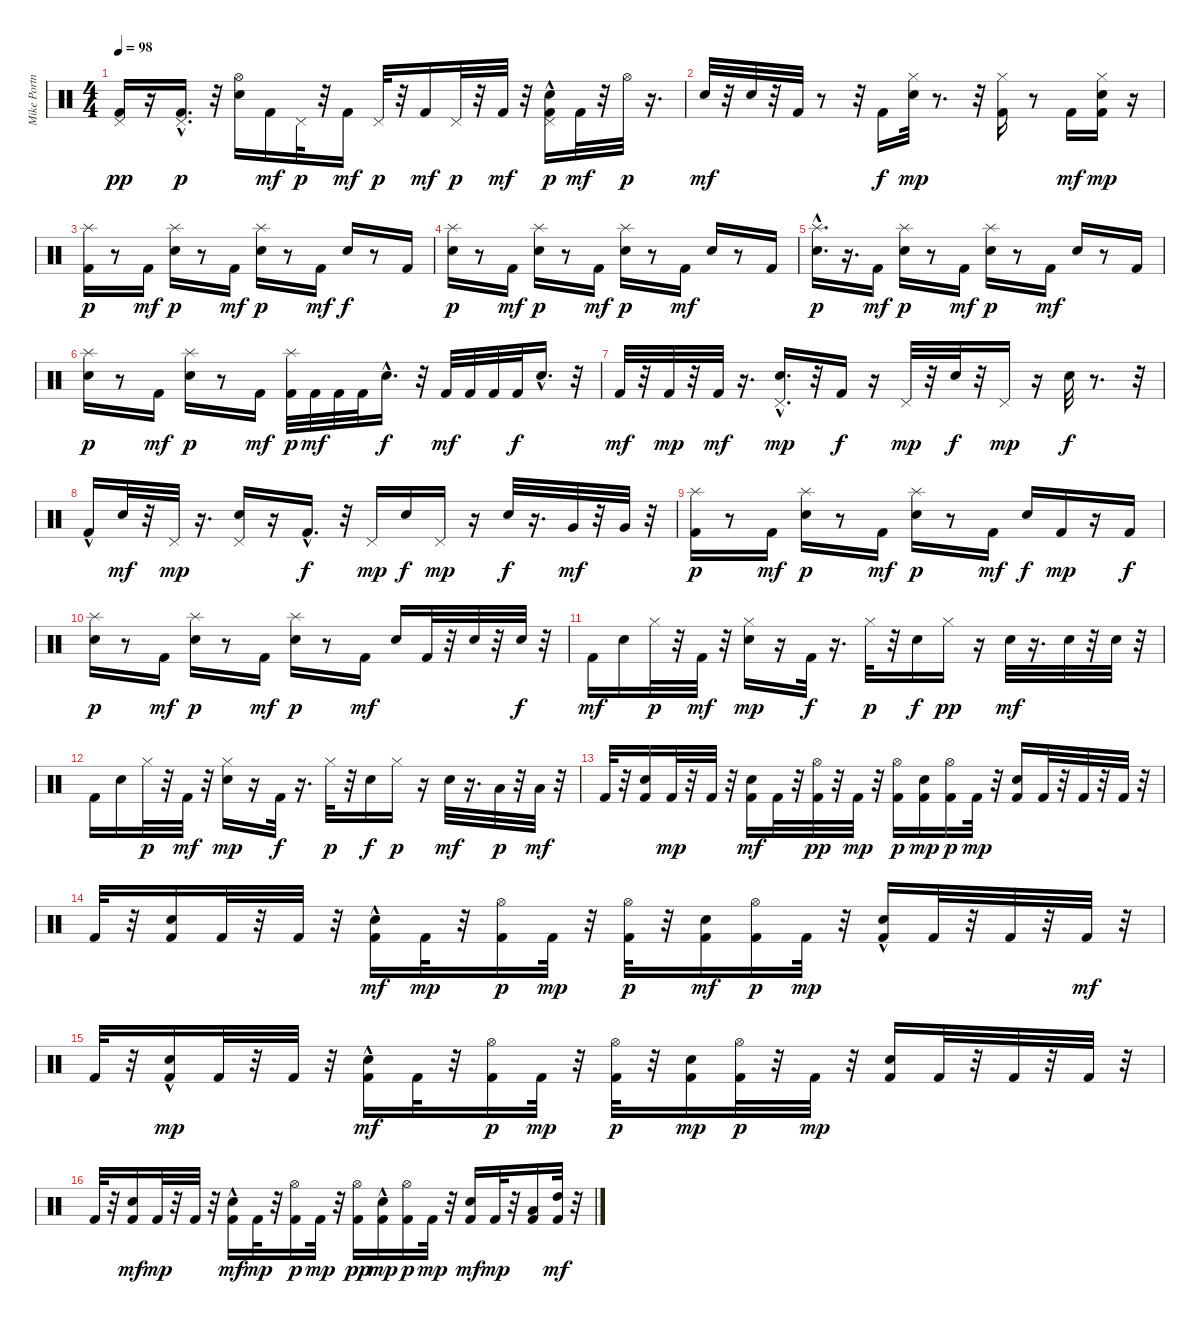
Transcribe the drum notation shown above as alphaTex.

\track ("Mike Portnoy" "Mike Portn") {instrument percussion}
\staff {score}
\articulation defaults
\ts (4 4)
\tempo 98
\clef neutral
\ks c
("Kick (hit) 2" "Pedal Hi-Hat (hit)").16{dy pp} r.16 ("Kick (hit) 2"{hac} "Pedal Hi-Hat (hit)").16{d dy p} r.32 ("Electric Snare (hit)" "Hi-Hat (open)").16 "Kick (hit) 2".16{dy mf} "Pedal Hi-Hat (hit)".32{dy p} r.32 "Kick (hit) 2".16{dy mf} "Pedal Hi-Hat (hit)".32{dy p} r.32 "Kick (hit) 2".16{dy mf} "Pedal Hi-Hat (hit)".32{dy p} r.32 "Kick (hit) 2".32{dy mf} r.32 ("Kick (hit) 2" "Electric Snare (hit)"{hac} "Pedal Hi-Hat (hit)").16{dy p} "Kick (hit) 2".32{dy mf} r.32 "Hi-Hat (open)".32{dy p} r.16{d} |
"Electric Snare (hit)".32{dy mf} r.32 "Electric Snare (hit)".32 r.32 "Kick (hit) 2".32 r.8 r.32 "Kick (hit) 2".16{dy f} ("Electric Snare (hit)" "Hi-Hat (closed)").32{dy mp} r.8{d} r.32 ("Kick (hit) 2" "Hi-Hat (closed)").16 r.8 "Kick (hit) 2".16{dy mf} ("Kick (hit) 2" "Electric Snare (hit)" "Hi-Hat (closed)").16{dy mp} r.16 |
("Kick (hit) 2" "Splash (hit)").16{dy p} r.8 "Kick (hit) 2".16{dy mf} ("Electric Snare (hit)" "Splash (hit)").16{dy p} r.8 "Kick (hit) 2".16{dy mf} ("Electric Snare (hit)" "Splash (hit)").16{dy p} r.8 "Kick (hit) 2".16{dy mf} "Electric Snare (hit)".16{dy f} r.8 "Kick (hit) 2".16 |
("Electric Snare (hit)" "Splash (hit)").16{dy p} r.8 "Kick (hit) 2".16{dy mf} ("Electric Snare (hit)" "Splash (hit)").16{dy p} r.8 "Kick (hit) 2".16{dy mf} ("Electric Snare (hit)" "Splash (hit)").16{dy p} r.8 "Kick (hit) 2".16{dy mf} "Electric Snare (hit)".16 r.8 "Kick (hit) 2".16 |
("Electric Snare (hit)"{hac} "Splash (hit)").16{d dy p} r.16{d} "Kick (hit) 2".16{dy mf} ("Electric Snare (hit)" "Splash (hit)").16{dy p} r.8 "Kick (hit) 2".16{dy mf} ("Electric Snare (hit)" "Splash (hit)").16{dy p} r.8 "Kick (hit) 2".16{dy mf} "Electric Snare (hit)".16 r.8 "Kick (hit) 2".16 |
("Electric Snare (hit)" "Splash (hit)").16{dy p} r.8 "Kick (hit) 2".16{dy mf} ("Electric Snare (hit)" "Splash (hit)").16{dy p} r.8 "Kick (hit) 2".16{dy mf} ("Kick (hit) 2" "Splash (hit)").32{dy p} "Kick (hit) 2".32{dy mf} "Kick (hit) 2".32 "Kick (hit) 2".32 "Electric Snare (hit)"{hac}.16{d dy f} r.32 "Kick (hit) 2".32{dy mf} "Kick (hit) 2".32 "Kick (hit) 2".32 "Kick (hit) 2".32{dy f} "Electric Snare (hit)"{hac}.16{d} r.32 |
"Kick (hit) 2".32{dy mf} r.32 "Kick (hit) 2".32{dy mp} r.32 "Kick (hit) 2".32{dy mf} r.16{d} ("Electric Snare (hit)"{hac} "Pedal Hi-Hat (hit)").16{d dy mp} r.32 "Kick (hit) 2".16{dy f} r.16 "Pedal Hi-Hat (hit)".32{dy mp} r.32 "Electric Snare (hit)".32{dy f} r.32 "Pedal Hi-Hat (hit)".16{dy mp} r.16 "Electric Snare (hit)".32{dy f} r.8{d} r.32 |
"Kick (hit) 2"{hac}.16 "Electric Snare (hit)".32{dy mf} r.32 "Pedal Hi-Hat (hit)".32{dy mp} r.16{d} ("Electric Snare (hit)" "Pedal Hi-Hat (hit)").16 r.16 "Kick (hit) 2"{hac}.16{d dy f} r.32 "Pedal Hi-Hat (hit)".16{dy mp} "Electric Snare (hit)".16{dy f} "Pedal Hi-Hat (hit)".16{dy mp} r.16 "Electric Snare (hit)".32{dy f} r.16{d} "Very Low Tom (hit)".32{dy mf} r.32 "Very Low Tom (hit)".32 r.32 |
("Kick (hit) 2" "Splash (hit)").16{dy p} r.8 "Kick (hit) 2".16{dy mf} ("Electric Snare (hit)" "Splash (hit)").16{dy p} r.8 "Kick (hit) 2".16{dy mf} ("Electric Snare (hit)" "Splash (hit)").16{dy p} r.8 "Kick (hit) 2".16{dy mf} "Electric Snare (hit)".16{dy f} "Kick (hit) 2".16{dy mp} r.16 "Kick (hit) 2".16{dy f} |
("Electric Snare (hit)" "Splash (hit)").16{dy p} r.8 "Kick (hit) 2".16{dy mf} ("Electric Snare (hit)" "Splash (hit)").16{dy p} r.8 "Kick (hit) 2".16{dy mf} ("Electric Snare (hit)" "Splash (hit)").16{dy p} r.8 "Kick (hit) 2".16{dy mf} "Electric Snare (hit)".16 "Kick (hit) 2".32 r.32 "Electric Snare (hit)".32 r.32 "Electric Snare (hit)".32{dy f} r.32 |
"Kick (hit) 2".16{dy mf} "Electric Snare (hit)".16 "Hi-Hat (closed)".32{dy p} r.32 "Kick (hit) 2".32{dy mf} r.32 ("Electric Snare (hit)" "Hi-Hat (closed)").16{dy mp} r.16 "Kick (hit) 2".32{dy f} r.16{d} "Hi-Hat (closed)".32{dy p} r.32 "Electric Snare (hit)".16{dy f} "Hi-Hat (closed)".16{dy pp} r.16 "Electric Snare (hit)".32{dy mf} r.16{d} "Electric Snare (hit)".32 r.32 "Electric Snare (hit)".32 r.32 |
"Kick (hit) 2".16 "Electric Snare (hit)".16 "Hi-Hat (closed)".32{dy p} r.32 "Kick (hit) 2".32{dy mf} r.32 ("Electric Snare (hit)" "Hi-Hat (closed)").16{dy mp} r.16 "Kick (hit) 2".32{dy f} r.16{d} "Hi-Hat (closed)".32{dy p} r.32 "Electric Snare (hit)".16{dy f} "Hi-Hat (closed)".16{dy p} r.16 "Electric Snare (hit)".32{dy mf} r.16{d} "Low Tom (hit)".32{dy p} r.32 "Low Tom (hit)".32{dy mf} r.32 |
"Kick (hit) 2".32 r.32 ("Kick (hit) 2" "Electric Snare (hit)").16 "Kick (hit) 2".32{dy mp} r.32 "Kick (hit) 2".32 r.32 ("Kick (hit) 2" "Electric Snare (hit)").16{dy mf} "Kick (hit) 2".32 r.32 ("Kick (hit) 2" "Hi-Hat (open)").32{dy pp} r.32 "Kick (hit) 2".32{dy mp} r.32 ("Kick (hit) 2" "Hi-Hat (open)").16{dy p} ("Kick (hit) 2" "Electric Snare (hit)").16{dy mp} ("Kick (hit) 2" "Hi-Hat (open)").16{dy p} "Kick (hit) 2".32{dy mp} r.32 ("Kick (hit) 2" "Electric Snare (hit)").16 "Kick (hit) 2".32 r.32 "Kick (hit) 2".32 r.32 "Kick (hit) 2".32 r.32 |
"Kick (hit) 2".32 r.32 ("Kick (hit) 2" "Electric Snare (hit)").16 "Kick (hit) 2".32 r.32 "Kick (hit) 2".32 r.32 ("Kick (hit) 2" "Electric Snare (hit)"{hac}).16{dy mf} "Kick (hit) 2".32{dy mp} r.32 ("Kick (hit) 2" "Hi-Hat (open)").16{dy p} "Kick (hit) 2".32{dy mp} r.32 ("Kick (hit) 2" "Hi-Hat (open)").32{dy p} r.32 ("Kick (hit) 2" "Electric Snare (hit)").16{dy mf} ("Kick (hit) 2" "Hi-Hat (open)").16{dy p} "Kick (hit) 2".32{dy mp} r.32 ("Kick (hit) 2" "Electric Snare (hit)"{hac}).16 "Kick (hit) 2".32 r.32 "Kick (hit) 2".32 r.32 "Kick (hit) 2".32{dy mf} r.32 |
"Kick (hit) 2".32 r.32 ("Kick (hit) 2" "Electric Snare (hit)"{hac}).16{dy mp} "Kick (hit) 2".32 r.32 "Kick (hit) 2".32 r.32 ("Kick (hit) 2" "Electric Snare (hit)"{hac}).16{dy mf} "Kick (hit) 2".32 r.32 ("Kick (hit) 2" "Hi-Hat (open)").16{dy p} "Kick (hit) 2".32{dy mp} r.32 ("Kick (hit) 2" "Hi-Hat (open)").32{dy p} r.32 ("Kick (hit) 2" "Electric Snare (hit)").16{dy mp} ("Kick (hit) 2" "Hi-Hat (open)").32{dy p} r.32 "Kick (hit) 2".32{dy mp} r.32 ("Kick (hit) 2" "Electric Snare (hit)").16 "Kick (hit) 2".32 r.32 "Kick (hit) 2".32 r.32 "Kick (hit) 2".32 r.32 |
"Kick (hit) 2".32 r.32 ("Kick (hit) 2" "Electric Snare (hit)").16{dy mf} "Kick (hit) 2".32{dy mp} r.32 "Kick (hit) 2".32 r.32 ("Kick (hit) 2" "Electric Snare (hit)"{hac}).16{dy mf} "Kick (hit) 2".32{dy mp} r.32 ("Kick (hit) 2" "Hi-Hat (open)").16{dy p} "Kick (hit) 2".32{dy mp} r.32 ("Kick (hit) 2" "Hi-Hat (open)").16{dy pp} ("Kick (hit) 2" "Electric Snare (hit)"{hac}).16{dy mp} ("Kick (hit) 2" "Hi-Hat (open)").16{dy p} "Kick (hit) 2".32{dy mp} r.32 ("Kick (hit) 2" "Electric Snare (hit)").16{dy mf} "Kick (hit) 2".32{dy mp} r.32 ("Kick (hit) 2" "Low Tom (hit)").16 ("Kick (hit) 2" "High Tom (hit)").32{dy mf} r.32
